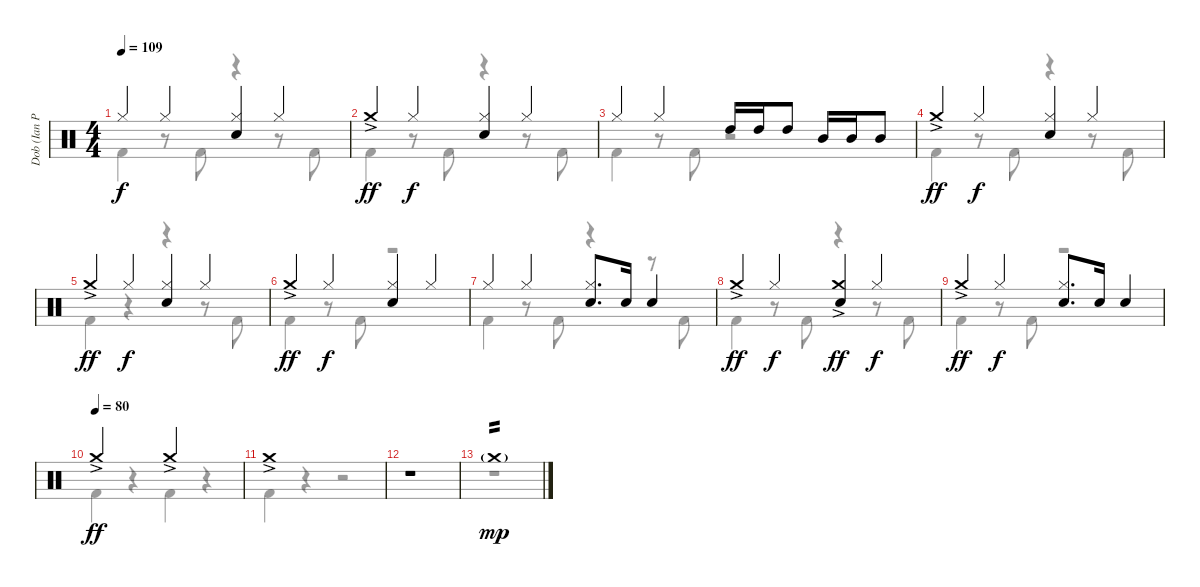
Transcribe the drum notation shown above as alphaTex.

\track ("Dob (Ian Paice)" "Dob (Ian P") {instrument percussion}
\staff {score}
\articulation defaults
\voice
\ts (4 4)
\tempo 109
\clef neutral
\ks c "Hi-Hat (closed)".4{dy f} "Hi-Hat (closed)".4
("Hi-Hat (closed)" "Electric Snare (hit)").4 "Hi-Hat (closed)".4 |
"Crash medium (hit)"{ac}.4{dy ff} "Hi-Hat (closed)".4{dy f} ("Hi-Hat (closed)" "Electric Snare (hit)").4 "Hi-Hat (closed)".4 |
"Hi-Hat (closed)".4 "Hi-Hat (closed)".4 "High Tom (hit)".16 "High Tom (hit)".16 "High Tom (hit)".8 "Mid Tom (hit)".16 "Mid Tom (hit)".16 "Mid Tom (hit)".8 |
"Crash medium (hit)"{ac}.4{dy ff} "Hi-Hat (closed)".4{dy f} ("Hi-Hat (closed)" "Electric Snare (hit)").4 "Hi-Hat (closed)".4 |
"Crash medium (hit)"{ac}.4{dy ff} "Hi-Hat (closed)".4{dy f} ("Hi-Hat (closed)" "Electric Snare (hit)").4 "Hi-Hat (closed)".4 |
"Crash medium (hit)"{ac}.4{dy ff} "Hi-Hat (closed)".4{dy f} ("Hi-Hat (closed)" "Electric Snare (hit)").4 "Hi-Hat (closed)".4 |
"Hi-Hat (closed)".4 "Hi-Hat (closed)".4 ("Hi-Hat (closed)" "Electric Snare (hit)").8{d} "Electric Snare (hit)".16 "Electric Snare (hit)".4 |
"Crash medium (hit)"{ac}.4{dy ff} "Hi-Hat (closed)".4{dy f} ("Crash medium (hit)"{ac} "Electric Snare (hit)").4{dy ff} "Hi-Hat (closed)".4{dy f} |
"Crash medium (hit)"{ac}.4{dy ff} "Hi-Hat (closed)".4{dy f} ("Hi-Hat (closed)" "Electric Snare (hit)").8{d} "Electric Snare (hit)".16 "Electric Snare (hit)".4 |
\tempo (80)
"Crash medium (hit)"{ac}.2{dy ff} "Crash medium (hit)"{ac}.2 |
"Crash medium (hit)"{ac}.1 |
r.1 |
"Crash medium (hit)"{g}.1{tp 2 dy mp} |
\voice
\clef neutral
\ottava regular
\simile none
\ks c "Kick (hit) 2".4{dy f}
r.8 "Kick (hit) 2".8 r.4 r.8 "Kick (hit) 2".8 |
"Kick (hit) 2".4 r.8 "Kick (hit) 2".8 r.4 r.8 "Kick (hit) 2".8 |
"Kick (hit) 2".4 r.8 "Kick (hit) 2".8 r.2 |
"Kick (hit) 2".4 r.8 "Kick (hit) 2".8 r.4 r.8 "Kick (hit) 2".8 |
"Kick (hit) 2".4 r.4 r.4 r.8 "Kick (hit) 2".8 |
"Kick (hit) 2".4 r.8 "Kick (hit) 2".8 r.2 |
"Kick (hit) 2".4 r.8 "Kick (hit) 2".8 r.4 r.8 "Kick (hit) 2".8 |
"Kick (hit) 2".4 r.8 "Kick (hit) 2".8 r.4 r.8 "Kick (hit) 2".8 |
"Kick (hit) 2".4 r.8 "Kick (hit) 2".8 r.2 |
"Kick (hit) 2".4 r.4 "Kick (hit) 2".4 r.4 |
"Kick (hit) 2".4 r.4 r.2 |
r.1 |
r.1 |
